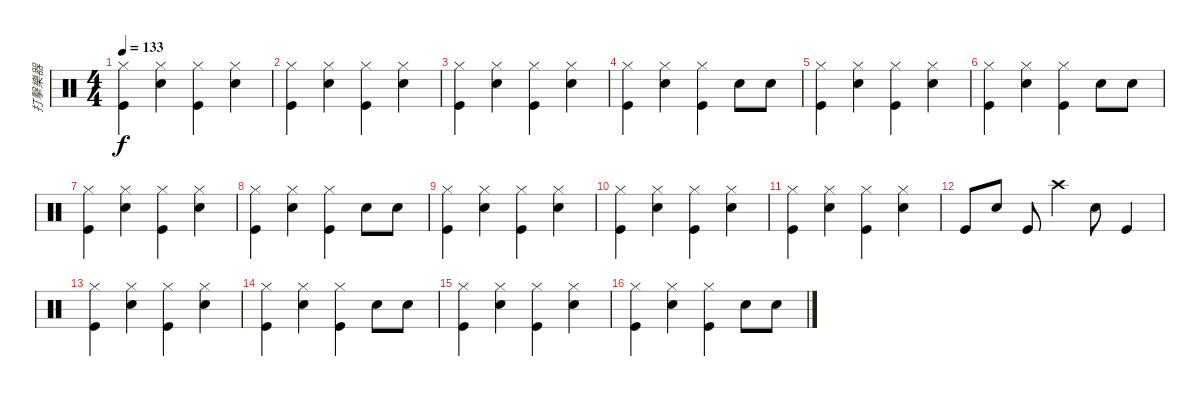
\track ("打擊樂器" "打擊樂器") {instrument percussion}
\staff {score}
\articulation defaults
\ts (4 4)
\tempo 133
\clef neutral
\ks c
("Hi-Hat (closed)" "Kick (hit)").4{dy f} ("Hi-Hat (closed)" "Snare (hit) 2").4 ("Hi-Hat (closed)" "Kick (hit)").4 ("Hi-Hat (closed)" "Snare (hit) 2").4 |
("Hi-Hat (closed)" "Kick (hit)").4 ("Hi-Hat (closed)" "Snare (hit) 2").4 ("Hi-Hat (closed)" "Kick (hit)").4 ("Hi-Hat (closed)" "Snare (hit) 2").4 |
("Hi-Hat (closed)" "Kick (hit)").4 ("Hi-Hat (closed)" "Snare (hit) 2").4 ("Hi-Hat (closed)" "Kick (hit)").4 ("Hi-Hat (closed)" "Snare (hit) 2").4 |
("Hi-Hat (closed)" "Kick (hit)").4 ("Hi-Hat (closed)" "Snare (hit) 2").4 ("Hi-Hat (closed)" "Kick (hit)").4 "Snare (hit) 2".8 "Snare (hit) 2".8 |
("Hi-Hat (closed)" "Kick (hit)").4 ("Hi-Hat (closed)" "Snare (hit) 2").4 ("Hi-Hat (closed)" "Kick (hit)").4 ("Hi-Hat (closed)" "Snare (hit) 2").4 |
("Hi-Hat (closed)" "Kick (hit)").4 ("Hi-Hat (closed)" "Snare (hit) 2").4 ("Hi-Hat (closed)" "Kick (hit)").4 "Snare (hit) 2".8 "Snare (hit) 2".8 |
("Hi-Hat (closed)" "Kick (hit)").4 ("Hi-Hat (closed)" "Snare (hit) 2").4 ("Hi-Hat (closed)" "Kick (hit)").4 ("Hi-Hat (closed)" "Snare (hit) 2").4 |
("Hi-Hat (closed)" "Kick (hit)").4 ("Hi-Hat (closed)" "Snare (hit) 2").4 ("Hi-Hat (closed)" "Kick (hit)").4 "Snare (hit) 2".8 "Snare (hit) 2".8 |
("Hi-Hat (closed)" "Kick (hit)").4 ("Hi-Hat (closed)" "Snare (hit) 2").4 ("Hi-Hat (closed)" "Kick (hit)").4 ("Hi-Hat (closed)" "Snare (hit) 2").4 |
("Hi-Hat (closed)" "Kick (hit)").4 ("Hi-Hat (closed)" "Snare (hit) 2").4 ("Hi-Hat (closed)" "Kick (hit)").4 ("Hi-Hat (closed)" "Snare (hit) 2").4 |
("Hi-Hat (closed)" "Kick (hit)").4 ("Hi-Hat (closed)" "Snare (hit) 2").4 ("Hi-Hat (closed)" "Kick (hit)").4 ("Hi-Hat (closed)" "Snare (hit) 2").4 |
"Kick (hit)".8 "Snare (hit) 2".8 "Kick (hit)".8 "Crash high (hit)".4 "Snare (hit) 2".8 "Kick (hit)".4 |
("Hi-Hat (closed)" "Kick (hit)").4 ("Hi-Hat (closed)" "Snare (hit) 2").4 ("Hi-Hat (closed)" "Kick (hit)").4 ("Hi-Hat (closed)" "Snare (hit) 2").4 |
("Hi-Hat (closed)" "Kick (hit)").4 ("Hi-Hat (closed)" "Snare (hit) 2").4 ("Hi-Hat (closed)" "Kick (hit)").4 "Snare (hit) 2".8 "Snare (hit) 2".8 |
("Hi-Hat (closed)" "Kick (hit)").4 ("Hi-Hat (closed)" "Snare (hit) 2").4 ("Hi-Hat (closed)" "Kick (hit)").4 ("Hi-Hat (closed)" "Snare (hit) 2").4 |
("Hi-Hat (closed)" "Kick (hit)").4 ("Hi-Hat (closed)" "Snare (hit) 2").4 ("Hi-Hat (closed)" "Kick (hit)").4 "Snare (hit) 2".8 "Snare (hit) 2".8
